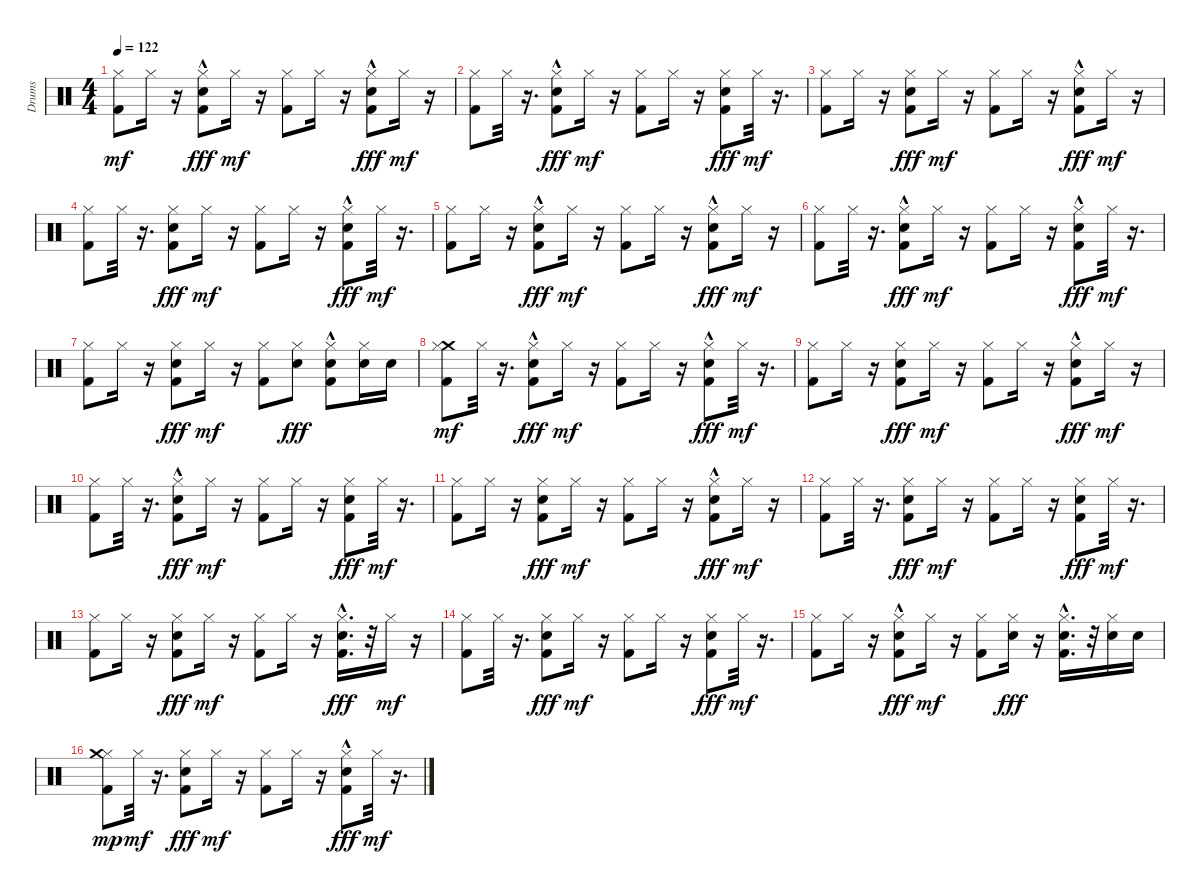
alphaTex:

\track ("Drums" "Drums") {instrument percussion}
\staff {score}
\articulation defaults
\ts (4 4)
\tempo 122
\clef neutral
\ks c
("Hi-Hat (closed)" "Kick (hit) 2").8{dy mf} "Hi-Hat (closed)".16 r.16 ("Hi-Hat (closed)" "Electric Snare (hit)"{hac} "Kick (hit) 2").8{dy fff} "Hi-Hat (closed)".16{dy mf} r.16 ("Hi-Hat (closed)" "Kick (hit) 2").8 "Hi-Hat (closed)".16 r.16 ("Hi-Hat (closed)" "Electric Snare (hit)" "Kick (hit) 2"{hac}).8{dy fff} "Hi-Hat (closed)".16{dy mf} r.16 |
("Hi-Hat (closed)" "Kick (hit) 2").8 "Hi-Hat (closed)".32 r.16{d} ("Hi-Hat (closed)" "Electric Snare (hit)"{hac} "Kick (hit) 2").8{dy fff} "Hi-Hat (closed)".16{dy mf} r.16 ("Hi-Hat (closed)" "Kick (hit) 2").8 "Hi-Hat (closed)".16 r.16 ("Hi-Hat (closed)" "Electric Snare (hit)" "Kick (hit) 2").8{dy fff} "Hi-Hat (closed)".32{dy mf} r.16{d} |
("Hi-Hat (closed)" "Kick (hit) 2").8 "Hi-Hat (closed)".16 r.16 ("Hi-Hat (closed)" "Electric Snare (hit)" "Kick (hit) 2").8{dy fff} "Hi-Hat (closed)".16{dy mf} r.16 ("Hi-Hat (closed)" "Kick (hit) 2").8 "Hi-Hat (closed)".16 r.16 ("Hi-Hat (closed)" "Electric Snare (hit)" "Kick (hit) 2"{hac}).8{dy fff} "Hi-Hat (closed)".16{dy mf} r.16 |
("Hi-Hat (closed)" "Kick (hit) 2").8 "Hi-Hat (closed)".32 r.16{d} ("Hi-Hat (closed)" "Electric Snare (hit)" "Kick (hit) 2").8{dy fff} "Hi-Hat (closed)".16{dy mf} r.16 ("Hi-Hat (closed)" "Kick (hit) 2").8 "Hi-Hat (closed)".16 r.16 ("Hi-Hat (closed)" "Electric Snare (hit)"{hac} "Kick (hit) 2").8{dy fff} "Hi-Hat (closed)".32{dy mf} r.16{d} |
("Hi-Hat (closed)" "Kick (hit) 2").8 "Hi-Hat (closed)".16 r.16 ("Hi-Hat (closed)" "Electric Snare (hit)"{hac} "Kick (hit) 2").8{dy fff} "Hi-Hat (closed)".16{dy mf} r.16 ("Hi-Hat (closed)" "Kick (hit) 2").8 "Hi-Hat (closed)".16 r.16 ("Hi-Hat (closed)" "Electric Snare (hit)"{hac} "Kick (hit) 2"{hac}).8{dy fff} "Hi-Hat (closed)".16{dy mf} r.16 |
("Hi-Hat (closed)" "Kick (hit) 2").8 "Hi-Hat (closed)".32 r.16{d} ("Hi-Hat (closed)" "Electric Snare (hit)"{hac} "Kick (hit) 2").8{dy fff} "Hi-Hat (closed)".16{dy mf} r.16 ("Hi-Hat (closed)" "Kick (hit) 2").8 "Hi-Hat (closed)".16 r.16 ("Hi-Hat (closed)" "Electric Snare (hit)"{hac} "Kick (hit) 2").8{dy fff} "Hi-Hat (closed)".32{dy mf} r.16{d} |
("Hi-Hat (closed)" "Kick (hit) 2").8 "Hi-Hat (closed)".16 r.16 ("Hi-Hat (closed)" "Electric Snare (hit)" "Kick (hit) 2").8{dy fff} "Hi-Hat (closed)".16{dy mf} r.16 ("Hi-Hat (closed)" "Kick (hit) 2").8 ("Hi-Hat (closed)" "Electric Snare (hit)").8{dy fff} ("Hi-Hat (closed)" "Electric Snare (hit)" "Kick (hit) 2"{hac}).8 ("Hi-Hat (closed)" "Electric Snare (hit)").16 "Electric Snare (hit)".16 |
("Crash medium (hit)" "Hi-Hat (closed)" "Kick (hit) 2").8{dy mf} "Hi-Hat (closed)".32 r.16{d} ("Hi-Hat (closed)" "Electric Snare (hit)"{hac} "Kick (hit) 2").8{dy fff} "Hi-Hat (closed)".16{dy mf} r.16 ("Hi-Hat (closed)" "Kick (hit) 2").8 "Hi-Hat (closed)".16 r.16 ("Hi-Hat (closed)" "Electric Snare (hit)"{hac} "Kick (hit) 2").8{dy fff} "Hi-Hat (closed)".32{dy mf} r.16{d} |
("Hi-Hat (closed)" "Kick (hit) 2").8 "Hi-Hat (closed)".16 r.16 ("Hi-Hat (closed)" "Electric Snare (hit)" "Kick (hit) 2").8{dy fff} "Hi-Hat (closed)".16{dy mf} r.16 ("Hi-Hat (closed)" "Kick (hit) 2").8 "Hi-Hat (closed)".16 r.16 ("Hi-Hat (closed)" "Electric Snare (hit)"{hac} "Kick (hit) 2"{hac}).8{dy fff} "Hi-Hat (closed)".16{dy mf} r.16 |
("Hi-Hat (closed)" "Kick (hit) 2").8 "Hi-Hat (closed)".32 r.16{d} ("Hi-Hat (closed)" "Electric Snare (hit)"{hac} "Kick (hit) 2").8{dy fff} "Hi-Hat (closed)".16{dy mf} r.16 ("Hi-Hat (closed)" "Kick (hit) 2").8 "Hi-Hat (closed)".16 r.16 ("Hi-Hat (closed)" "Electric Snare (hit)" "Kick (hit) 2").8{dy fff} "Hi-Hat (closed)".32{dy mf} r.16{d} |
("Hi-Hat (closed)" "Kick (hit) 2").8 "Hi-Hat (closed)".16 r.16 ("Hi-Hat (closed)" "Electric Snare (hit)" "Kick (hit) 2").8{dy fff} "Hi-Hat (closed)".16{dy mf} r.16 ("Hi-Hat (closed)" "Kick (hit) 2").8 "Hi-Hat (closed)".16 r.16 ("Hi-Hat (closed)" "Electric Snare (hit)" "Kick (hit) 2"{hac}).8{dy fff} "Hi-Hat (closed)".16{dy mf} r.16 |
("Hi-Hat (closed)" "Kick (hit) 2").8 "Hi-Hat (closed)".32 r.16{d} ("Hi-Hat (closed)" "Electric Snare (hit)" "Kick (hit) 2").8{dy fff} "Hi-Hat (closed)".16{dy mf} r.16 ("Hi-Hat (closed)" "Kick (hit) 2").8 "Hi-Hat (closed)".16 r.16 ("Hi-Hat (closed)" "Electric Snare (hit)" "Kick (hit) 2").8{dy fff} "Hi-Hat (closed)".32{dy mf} r.16{d} |
("Hi-Hat (closed)" "Kick (hit) 2").8 "Hi-Hat (closed)".16 r.16 ("Hi-Hat (closed)" "Electric Snare (hit)" "Kick (hit) 2").8{dy fff} "Hi-Hat (closed)".16{dy mf} r.16 ("Hi-Hat (closed)" "Kick (hit) 2").8 "Hi-Hat (closed)".16 r.16 ("Hi-Hat (closed)" "Electric Snare (hit)"{hac} "Kick (hit) 2"{hac}).16{d dy fff} r.32 "Hi-Hat (closed)".16{dy mf} r.16 |
("Hi-Hat (closed)" "Kick (hit) 2").8 "Hi-Hat (closed)".32 r.16{d} ("Hi-Hat (closed)" "Electric Snare (hit)" "Kick (hit) 2").8{dy fff} "Hi-Hat (closed)".16{dy mf} r.16 ("Hi-Hat (closed)" "Kick (hit) 2").8 "Hi-Hat (closed)".16 r.16 ("Hi-Hat (closed)" "Electric Snare (hit)" "Kick (hit) 2").8{dy fff} "Hi-Hat (closed)".32{dy mf} r.16{d} |
("Hi-Hat (closed)" "Kick (hit) 2").8 "Hi-Hat (closed)".16 r.16 ("Hi-Hat (closed)" "Electric Snare (hit)"{hac} "Kick (hit) 2").8{dy fff} "Hi-Hat (closed)".16{dy mf} r.16 ("Hi-Hat (closed)" "Kick (hit) 2").8 ("Hi-Hat (closed)" "Electric Snare (hit)").16{dy fff} r.16 ("Hi-Hat (closed)" "Electric Snare (hit)" "Kick (hit) 2"{hac}).16{d} r.32 ("Hi-Hat (closed)" "Electric Snare (hit)").16 "Electric Snare (hit)".16 |
("Hi-Hat (closed)" "Crash medium (hit)" "Kick (hit) 2").8{dy mp} "Hi-Hat (closed)".32{dy mf} r.16{d} ("Hi-Hat (closed)" "Electric Snare (hit)" "Kick (hit) 2").8{dy fff} "Hi-Hat (closed)".16{dy mf} r.16 ("Hi-Hat (closed)" "Kick (hit) 2").8 "Hi-Hat (closed)".16 r.16 ("Hi-Hat (closed)" "Electric Snare (hit)"{hac} "Kick (hit) 2").8{dy fff} "Hi-Hat (closed)".32{dy mf} r.16{d}
